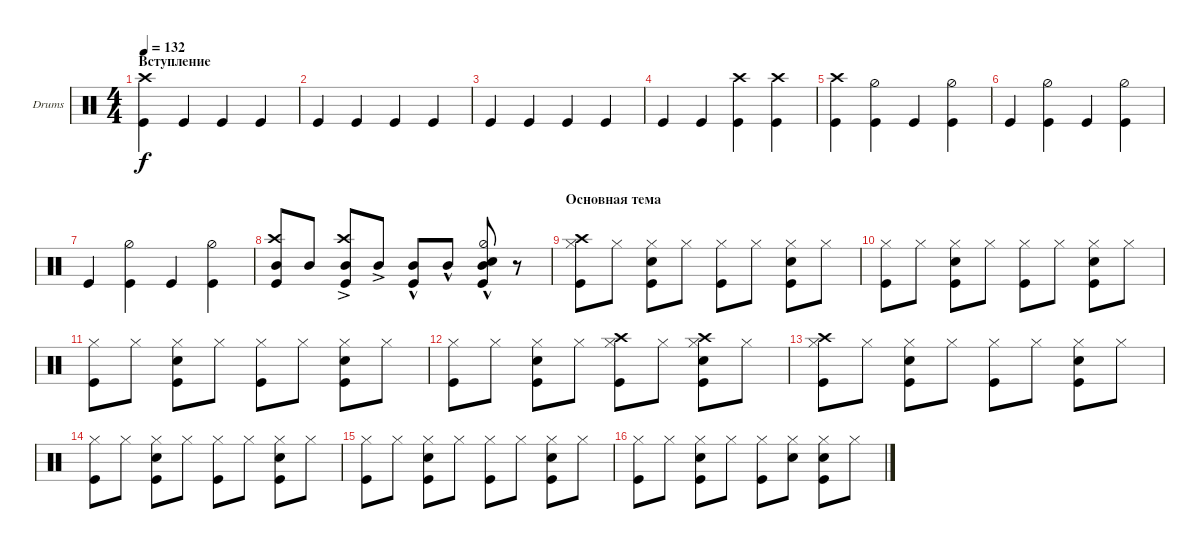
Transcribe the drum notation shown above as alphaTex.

\defaultSystemsLayout 4
\bracketExtendMode groupsimilarinstruments
\firstSystemTrackNameOrientation horizontal
\otherSystemsTrackNameOrientation horizontal
\track ("Drumkit" "Drums") {instrument percussion}
\staff {score}
\articulation defaults
\ts (4 4)
\section ("" "Вступление")
\tempo 132
\clef neutral
\scale
0.472222
\ks c
("Kick (hit)" "Crash high (hit)").4{dy f} "Kick (hit)".4 "Kick (hit)".4 "Kick (hit)".4 |
\scale
0.263889 "Kick (hit)".4 "Kick (hit)".4 "Kick (hit)".4 "Kick (hit)".4 |
\scale
0.263889 "Kick (hit)".4 "Kick (hit)".4 "Kick (hit)".4 "Kick (hit)".4 |
\scale
0.333333 "Kick (hit)".4 "Kick (hit)".4 ("Kick (hit)" "Crash high (hit)").4 ("Kick (hit)" "Crash high (hit)").4 |
\scale
0.333333 ("Kick (hit)" "Crash high (hit)").4 ("Kick (hit)" "Hi-Hat (half)").4 "Kick (hit)".4 ("Kick (hit)" "Hi-Hat (half)").4 |
\scale
0.333333 "Kick (hit)".4 ("Kick (hit)" "Hi-Hat (half)").4 "Kick (hit)".4 ("Kick (hit)" "Hi-Hat (half)").4 |
"Kick (hit)".4 ("Kick (hit)" "Hi-Hat (half)").4 "Kick (hit)".4 ("Kick (hit)" "Hi-Hat (half)").4 |
("Kick (hit)" "Mid Tom (hit)" "Crash high (hit)").8 "Mid Tom (hit)".8 ("Kick (hit)" "Mid Tom (hit)"{ac} "Crash high (hit)").8 "Mid Tom (hit)"{ac}.8 ("Kick (hit)" "Mid Tom (hit)"{hac}).8 "Mid Tom (hit)"{hac}.8 ("Kick (hit)" "Mid Tom (hit)" "Snare (hit) 2"{hac} "Hi-Hat (half)").8 r.8 |
\section ("" "Основная тема")
("Hi-Hat (closed)" "Kick (hit)" "Crash high (hit)").8 "Hi-Hat (closed)".8 ("Hi-Hat (closed)" "Kick (hit)" "Snare (hit) 2").8 "Hi-Hat (closed)".8 ("Hi-Hat (closed)" "Kick (hit)").8 "Hi-Hat (closed)".8 ("Hi-Hat (closed)" "Kick (hit)" "Snare (hit) 2").8 "Hi-Hat (closed)".8 |
("Hi-Hat (closed)" "Kick (hit)").8 "Hi-Hat (closed)".8 ("Hi-Hat (closed)" "Kick (hit)" "Snare (hit) 2").8 "Hi-Hat (closed)".8 ("Hi-Hat (closed)" "Kick (hit)").8 "Hi-Hat (closed)".8 ("Hi-Hat (closed)" "Kick (hit)" "Snare (hit) 2").8 "Hi-Hat (closed)".8 |
("Hi-Hat (closed)" "Kick (hit)").8 "Hi-Hat (closed)".8 ("Hi-Hat (closed)" "Kick (hit)" "Snare (hit) 2").8 "Hi-Hat (closed)".8 ("Hi-Hat (closed)" "Kick (hit)").8 "Hi-Hat (closed)".8 ("Hi-Hat (closed)" "Kick (hit)" "Snare (hit) 2").8 "Hi-Hat (closed)".8 |
("Hi-Hat (closed)" "Kick (hit)").8 "Hi-Hat (closed)".8 ("Hi-Hat (closed)" "Kick (hit)" "Snare (hit) 2").8 "Hi-Hat (closed)".8 ("Hi-Hat (closed)" "Kick (hit)" "Crash high (hit)").8 "Hi-Hat (closed)".8 ("Hi-Hat (closed)" "Kick (hit)" "Snare (hit) 2" "Crash high (hit)").8 "Hi-Hat (closed)".8 |
("Hi-Hat (closed)" "Kick (hit)" "Crash high (hit)").8 "Hi-Hat (closed)".8 ("Hi-Hat (closed)" "Kick (hit)" "Snare (hit) 2").8 "Hi-Hat (closed)".8 ("Hi-Hat (closed)" "Kick (hit)").8 "Hi-Hat (closed)".8 ("Hi-Hat (closed)" "Kick (hit)" "Snare (hit) 2").8 "Hi-Hat (closed)".8 |
("Hi-Hat (closed)" "Kick (hit)").8 "Hi-Hat (closed)".8 ("Hi-Hat (closed)" "Kick (hit)" "Snare (hit) 2").8 "Hi-Hat (closed)".8 ("Hi-Hat (closed)" "Kick (hit)").8 "Hi-Hat (closed)".8 ("Hi-Hat (closed)" "Kick (hit)" "Snare (hit) 2").8 "Hi-Hat (closed)".8 |
("Hi-Hat (closed)" "Kick (hit)").8 "Hi-Hat (closed)".8 ("Hi-Hat (closed)" "Kick (hit)" "Snare (hit) 2").8 "Hi-Hat (closed)".8 ("Hi-Hat (closed)" "Kick (hit)").8 "Hi-Hat (closed)".8 ("Hi-Hat (closed)" "Kick (hit)" "Snare (hit) 2").8 "Hi-Hat (closed)".8 |
("Hi-Hat (closed)" "Kick (hit)").8 "Hi-Hat (closed)".8 ("Hi-Hat (closed)" "Kick (hit)" "Snare (hit) 2").8 "Hi-Hat (closed)".8 ("Hi-Hat (closed)" "Kick (hit)").8 ("Hi-Hat (closed)" "Snare (hit) 2").8 ("Hi-Hat (closed)" "Kick (hit)" "Snare (hit) 2").8 "Hi-Hat (closed)".8
